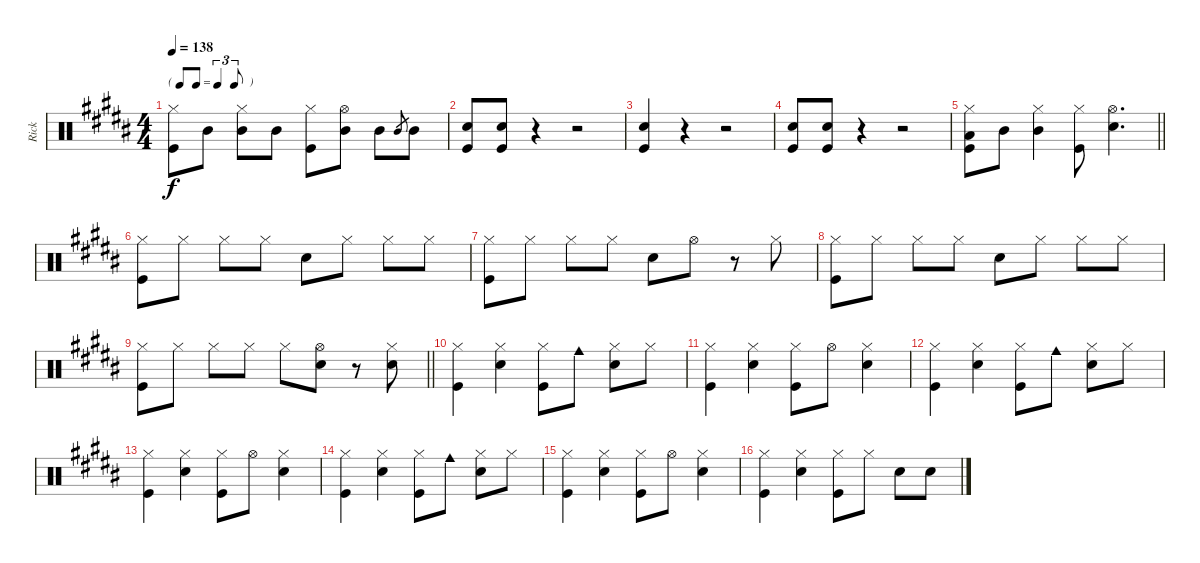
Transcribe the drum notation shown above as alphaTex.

\track ("Rick" "Rick") {instrument percussion}
\staff {score}
\articulation defaults
\ts (4 4)
\tf triplet8th
\tempo 138
\clef neutral
\ks b
("Hi-Hat (closed)" "Kick (hit)").8{dy f} "Mid Tom (hit)".8 ("Hi-Hat (closed)" "Mid Tom (hit)").8 "Mid Tom (hit)".8 ("Hi-Hat (closed)" "Kick (hit)").8 ("Hi-Hat (open)" "Mid Tom (hit)").8 "Mid Tom (hit)".8 "Mid Tom (hit)".8{gr} "Mid Tom (hit)".8 |
("Snare (hit) 2" "Kick (hit)").8 ("Snare (hit) 2" "Kick (hit)").8 r.4 r.2 |
("Snare (hit) 2" "Kick (hit)").4 r.4 r.2 |
("Snare (hit) 2" "Kick (hit)").8 ("Snare (hit) 2" "Kick (hit)").8 r.4 r.2 |
\barLineRight lightlight
("Hi-Hat (closed)" "Low Tom (hit)" "Kick (hit)").8 "Mid Tom (hit)".8 ("Hi-Hat (closed)" "Mid Tom (hit)").4 ("Hi-Hat (closed)" "Kick (hit)").8 ("Hi-Hat (open)" "Snare (hit) 2").4{d} |
("Hi-Hat (closed)" "Kick (hit)").8 "Hi-Hat (closed)".8 "Hi-Hat (closed)".8 "Hi-Hat (closed)".8 "Snare (hit) 2".8 "Hi-Hat (closed)".8 "Hi-Hat (closed)".8 "Hi-Hat (closed)".8 |
("Hi-Hat (closed)" "Kick (hit)").8 "Hi-Hat (closed)".8 "Hi-Hat (closed)".8 "Hi-Hat (closed)".8 "Snare (hit) 2".8 "Hi-Hat (open)".8 r.8 "Hi-Hat (closed)".8 |
("Hi-Hat (closed)" "Kick (hit)").8 "Hi-Hat (closed)".8 "Hi-Hat (closed)".8 "Hi-Hat (closed)".8 "Snare (hit) 2".8 "Hi-Hat (closed)".8 "Hi-Hat (closed)".8 "Hi-Hat (closed)".8 |
\barLineRight lightlight
("Hi-Hat (closed)" "Kick (hit)").8 "Hi-Hat (closed)".8 "Hi-Hat (closed)".8 "Hi-Hat (closed)".8 "Hi-Hat (closed)".8 ("Hi-Hat (open)" "Snare (hit) 2").8 r.8 ("Hi-Hat (closed)" "Snare (hit) 2").8 |
("Hi-Hat (closed)" "Kick (hit)").4 ("Hi-Hat (closed)" "Snare (hit) 2").4 ("Hi-Hat (closed)" "Kick (hit)").8 "Cowbell medium (hit)".8 ("Hi-Hat (closed)" "Snare (hit) 2").8 "Hi-Hat (closed)".8 |
("Hi-Hat (closed)" "Kick (hit)").4 ("Hi-Hat (closed)" "Snare (hit) 2").4 ("Hi-Hat (closed)" "Kick (hit)").8 "Hi-Hat (open)".8 ("Hi-Hat (closed)" "Snare (hit) 2").4 |
("Hi-Hat (closed)" "Kick (hit)").4 ("Hi-Hat (closed)" "Snare (hit) 2").4 ("Hi-Hat (closed)" "Kick (hit)").8 "Cowbell medium (hit)".8 ("Hi-Hat (closed)" "Snare (hit) 2").8 "Hi-Hat (closed)".8 |
("Hi-Hat (closed)" "Kick (hit)").4 ("Hi-Hat (closed)" "Snare (hit) 2").4 ("Hi-Hat (closed)" "Kick (hit)").8 "Hi-Hat (open)".8 ("Hi-Hat (closed)" "Snare (hit) 2").4 |
("Hi-Hat (closed)" "Kick (hit)").4 ("Hi-Hat (closed)" "Snare (hit) 2").4 ("Hi-Hat (closed)" "Kick (hit)").8 "Cowbell medium (hit)".8 ("Hi-Hat (closed)" "Snare (hit) 2").8 "Hi-Hat (closed)".8 |
("Hi-Hat (closed)" "Kick (hit)").4 ("Hi-Hat (closed)" "Snare (hit) 2").4 ("Hi-Hat (closed)" "Kick (hit)").8 "Hi-Hat (open)".8 ("Hi-Hat (closed)" "Snare (hit) 2").4 |
("Hi-Hat (closed)" "Kick (hit)").4 ("Hi-Hat (closed)" "Snare (hit) 2").4 ("Hi-Hat (closed)" "Kick (hit)").8 "Hi-Hat (closed)".8 "Snare (hit) 2".8 "Snare (hit) 2".8
